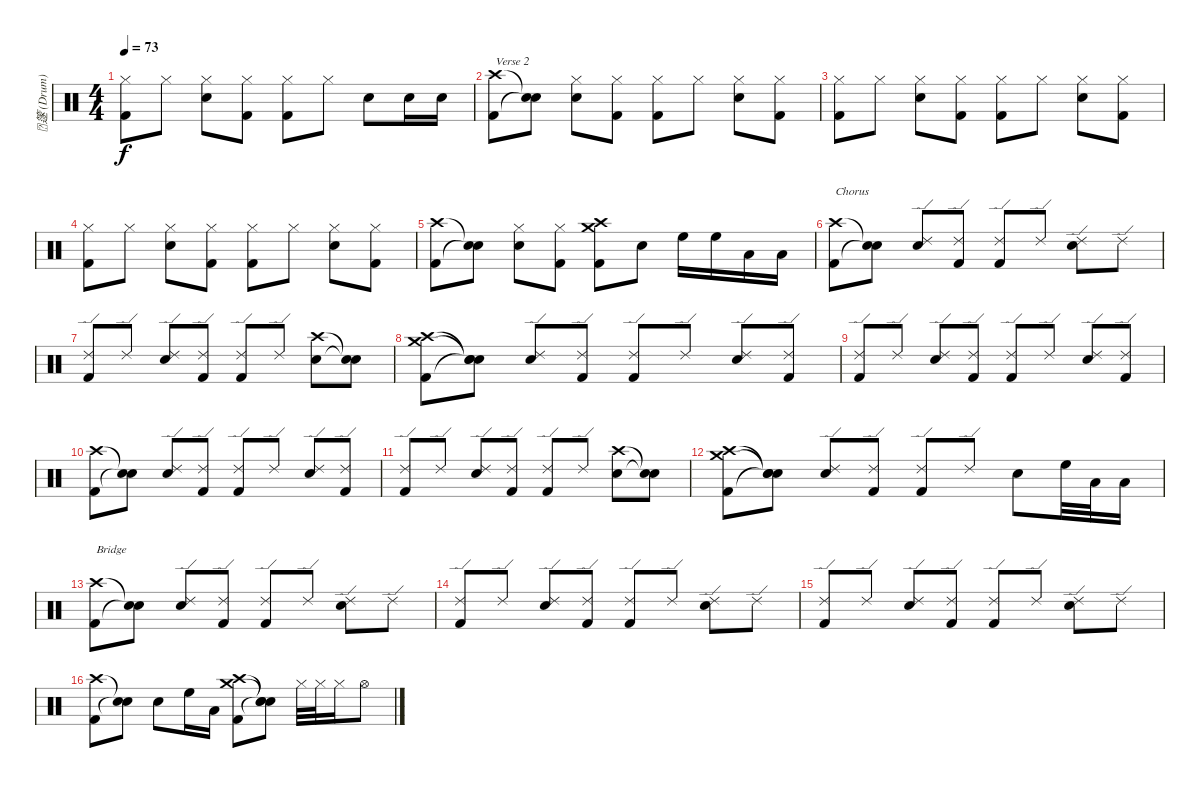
\track ("篴 (Drum)" "篴 (Drum)") {instrument percussion}
\staff {score}
\articulation defaults
\ts (4 4)
\tempo 73
\clef neutral
\ks c
("Hi-Hat (closed)" "Kick (hit) 2").8{dy f} "Hi-Hat (closed)".8 ("Hi-Hat (closed)" "Electric Snare (hit)").8 ("Hi-Hat (closed)" "Kick (hit) 2").8 ("Hi-Hat (closed)" "Kick (hit) 2").8 "Hi-Hat (closed)".8 "Electric Snare (hit)".8 "Electric Snare (hit)".16 "Electric Snare (hit)".16 |
("Crash high (hit)" "Kick (hit) 2").8{txt "Verse 2"} ("Snare (hit)"{t} "Snare (hit)"{t}).8 ("Hi-Hat (closed)" "Electric Snare (hit)").8 ("Hi-Hat (closed)" "Kick (hit) 2").8 ("Hi-Hat (closed)" "Kick (hit) 2").8 "Hi-Hat (closed)".8 ("Hi-Hat (closed)" "Electric Snare (hit)").8 ("Hi-Hat (closed)" "Kick (hit) 2").8 |
("Hi-Hat (closed)" "Kick (hit) 2").8 "Hi-Hat (closed)".8 ("Hi-Hat (closed)" "Electric Snare (hit)").8 ("Hi-Hat (closed)" "Kick (hit) 2").8 ("Hi-Hat (closed)" "Kick (hit) 2").8 "Hi-Hat (closed)".8 ("Hi-Hat (closed)" "Electric Snare (hit)").8 ("Hi-Hat (closed)" "Kick (hit) 2").8 |
("Hi-Hat (closed)" "Kick (hit) 2").8 "Hi-Hat (closed)".8 ("Hi-Hat (closed)" "Electric Snare (hit)").8 ("Hi-Hat (closed)" "Kick (hit) 2").8 ("Hi-Hat (closed)" "Kick (hit) 2").8 "Hi-Hat (closed)".8 ("Hi-Hat (closed)" "Electric Snare (hit)").8 ("Hi-Hat (closed)" "Kick (hit) 2").8 |
("Crash high (hit)" "Kick (hit) 2").8 ("Snare (hit)"{t} "Snare (hit)"{t}).8 ("Hi-Hat (closed)" "Electric Snare (hit)").8 ("Hi-Hat (closed)" "Kick (hit) 2").8 ("Crash high (hit)" "Crash medium (hit)" "Kick (hit) 2").8 "Electric Snare (hit)".8 "High Floor Tom (hit)".16 "High Floor Tom (hit)".16 "Low Tom (hit)".16 "Low Tom (hit)".16 |
("Crash high (hit)" "Kick (hit) 2").8{txt "Chorus"} ("Snare (hit)"{t} "Snare (hit)"{t}).8 ("Ride (edge) 2" "Electric Snare (hit)").8 ("Ride (edge) 2" "Kick (hit) 2").8 ("Ride (edge) 2" "Kick (hit) 2").8 "Ride (edge) 2".8 ("Ride (edge) 2" "Electric Snare (hit)").8 "Ride (edge) 2".8 |
("Ride (edge) 2" "Kick (hit) 2").8 "Ride (edge) 2".8 ("Ride (edge) 2" "Electric Snare (hit)").8 ("Ride (edge) 2" "Kick (hit) 2").8 ("Ride (edge) 2" "Kick (hit) 2").8 "Ride (edge) 2".8 ("Crash high (hit)" "Electric Snare (hit)").8 ("Snare (hit)"{t} "Snare (hit)"{t}).8 |
("Crash high (hit)" "Crash medium (hit)" "Kick (hit) 2").8 ("Snare (hit)"{t} "Snare (hit)"{t} "Snare (hit)"{t}).8 ("Ride (edge) 2" "Electric Snare (hit)").8 ("Ride (edge) 2" "Kick (hit) 2").8 ("Ride (edge) 2" "Kick (hit) 2").8 "Ride (edge) 2".8 ("Ride (edge) 2" "Electric Snare (hit)").8 ("Ride (edge) 2" "Kick (hit) 2").8 |
("Ride (edge) 2" "Kick (hit) 2").8 "Ride (edge) 2".8 ("Ride (edge) 2" "Electric Snare (hit)").8 ("Ride (edge) 2" "Kick (hit) 2").8 ("Ride (edge) 2" "Kick (hit) 2").8 "Ride (edge) 2".8 ("Ride (edge) 2" "Electric Snare (hit)").8 ("Ride (edge) 2" "Kick (hit) 2").8 |
("Crash high (hit)" "Kick (hit) 2").8 ("Snare (hit)"{t} "Snare (hit)"{t}).8 ("Ride (edge) 2" "Electric Snare (hit)").8 ("Ride (edge) 2" "Kick (hit) 2").8 ("Ride (edge) 2" "Kick (hit) 2").8 "Ride (edge) 2".8 ("Ride (edge) 2" "Electric Snare (hit)").8 ("Ride (edge) 2" "Kick (hit) 2").8 |
("Ride (edge) 2" "Kick (hit) 2").8 "Ride (edge) 2".8 ("Ride (edge) 2" "Electric Snare (hit)").8 ("Ride (edge) 2" "Kick (hit) 2").8 ("Ride (edge) 2" "Kick (hit) 2").8 "Ride (edge) 2".8 ("Crash high (hit)" "Electric Snare (hit)").8 ("Snare (hit)"{t} "Snare (hit)"{t}).8 |
("Crash high (hit)" "Crash medium (hit)" "Kick (hit) 2").8 ("Snare (hit)"{t} "Snare (hit)"{t} "Snare (hit)"{t}).8 ("Ride (edge) 2" "Electric Snare (hit)").8 ("Ride (edge) 2" "Kick (hit) 2").8 ("Ride (edge) 2" "Kick (hit) 2").8 "Ride (edge) 2".8 "Electric Snare (hit)".8 "High Floor Tom (hit)".32 "Low Tom (hit)".32 "Low Tom (hit)".16 |
("Crash high (hit)" "Kick (hit) 2").8{txt "Bridge"} ("Snare (hit)"{t} "Snare (hit)"{t}).8 ("Ride (edge) 2" "Electric Snare (hit)").8 ("Ride (edge) 2" "Kick (hit) 2").8 ("Ride (edge) 2" "Kick (hit) 2").8 "Ride (edge) 2".8 ("Ride (edge) 2" "Electric Snare (hit)").8 "Ride (edge) 2".8 |
("Ride (edge) 2" "Kick (hit) 2").8 "Ride (edge) 2".8 ("Ride (edge) 2" "Electric Snare (hit)").8 ("Ride (edge) 2" "Kick (hit) 2").8 ("Ride (edge) 2" "Kick (hit) 2").8 "Ride (edge) 2".8 ("Ride (edge) 2" "Electric Snare (hit)").8 "Ride (edge) 2".8 |
("Ride (edge) 2" "Kick (hit) 2").8 "Ride (edge) 2".8 ("Ride (edge) 2" "Electric Snare (hit)").8 ("Ride (edge) 2" "Kick (hit) 2").8 ("Ride (edge) 2" "Kick (hit) 2").8 "Ride (edge) 2".8 ("Ride (edge) 2" "Electric Snare (hit)").8 "Ride (edge) 2".8 |
("Crash high (hit)" "Kick (hit) 2").8 ("Snare (hit)"{t} "Snare (hit)"{t}).8 "Electric Snare (hit)".8 "High Floor Tom (hit)".16 "Low Tom (hit)".16 ("Crash high (hit)" "Crash medium (hit)" "Kick (hit) 2").8 ("Snare (hit)"{t} "Snare (hit)"{t} "Snare (hit)"{t}).8 "Hi-Hat (closed)".32 "Hi-Hat (closed)".32 "Hi-Hat (closed)".16 "Hi-Hat (open)".8
